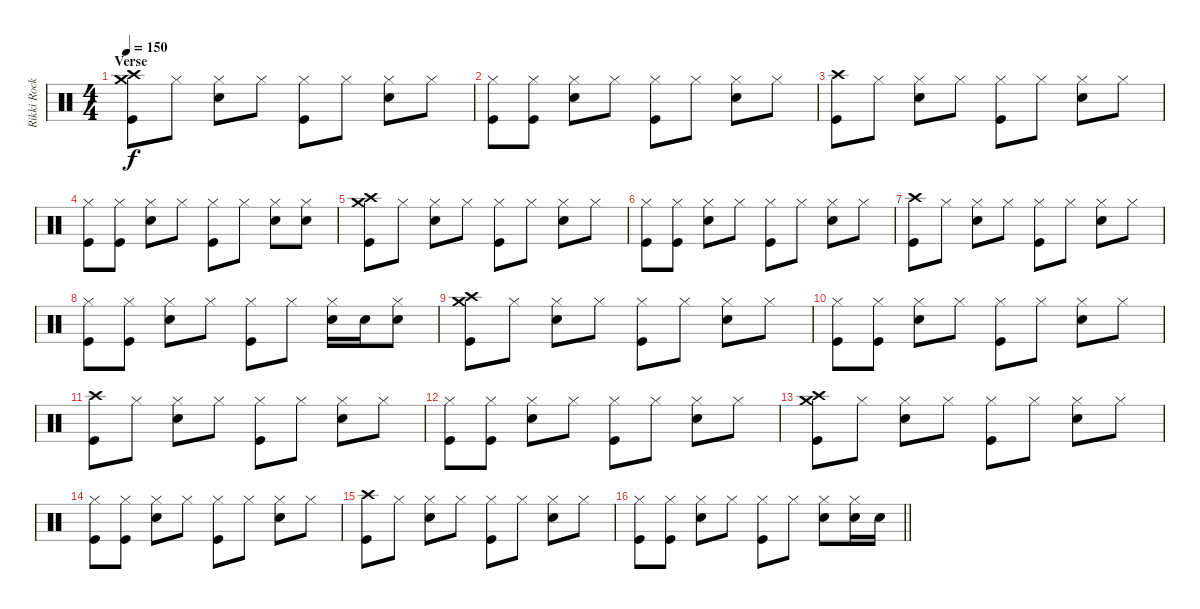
\track ("Rikki Rocket" "Rikki Rock") {instrument percussion}
\staff {score}
\articulation defaults
\ts (4 4)
\section ("" "Verse")
\tempo 150
\clef neutral
\ks c
("Crash medium (hit)" "Crash high (hit)" "Kick (hit)").8{dy f} "Hi-Hat (closed)".8 ("Hi-Hat (closed)" "Electric Snare (hit)").8 "Hi-Hat (closed)".8 ("Hi-Hat (closed)" "Kick (hit)").8 "Hi-Hat (closed)".8 ("Hi-Hat (closed)" "Electric Snare (hit)").8 "Hi-Hat (closed)".8 |
("Hi-Hat (closed)" "Kick (hit)").8 ("Hi-Hat (closed)" "Kick (hit)").8 ("Hi-Hat (closed)" "Electric Snare (hit)").8 "Hi-Hat (closed)".8 ("Hi-Hat (closed)" "Kick (hit)").8 "Hi-Hat (closed)".8 ("Hi-Hat (closed)" "Electric Snare (hit)").8 "Hi-Hat (closed)".8 |
("Crash high (hit)" "Kick (hit)").8 "Hi-Hat (closed)".8 ("Hi-Hat (closed)" "Electric Snare (hit)").8 "Hi-Hat (closed)".8 ("Hi-Hat (closed)" "Kick (hit)").8 "Hi-Hat (closed)".8 ("Hi-Hat (closed)" "Electric Snare (hit)").8 "Hi-Hat (closed)".8 |
("Hi-Hat (closed)" "Kick (hit)").8 ("Hi-Hat (closed)" "Kick (hit)").8 ("Hi-Hat (closed)" "Electric Snare (hit)").8 "Hi-Hat (closed)".8 ("Hi-Hat (closed)" "Kick (hit)").8 "Hi-Hat (closed)".8 ("Hi-Hat (closed)" "Electric Snare (hit)").8 ("Hi-Hat (closed)" "Electric Snare (hit)").8 |
("Crash medium (hit)" "Crash high (hit)" "Kick (hit)").8 "Hi-Hat (closed)".8 ("Hi-Hat (closed)" "Electric Snare (hit)").8 "Hi-Hat (closed)".8 ("Hi-Hat (closed)" "Kick (hit)").8 "Hi-Hat (closed)".8 ("Hi-Hat (closed)" "Electric Snare (hit)").8 "Hi-Hat (closed)".8 |
("Hi-Hat (closed)" "Kick (hit)").8 ("Hi-Hat (closed)" "Kick (hit)").8 ("Hi-Hat (closed)" "Electric Snare (hit)").8 "Hi-Hat (closed)".8 ("Hi-Hat (closed)" "Kick (hit)").8 "Hi-Hat (closed)".8 ("Hi-Hat (closed)" "Electric Snare (hit)").8 "Hi-Hat (closed)".8 |
("Crash high (hit)" "Kick (hit)").8 "Hi-Hat (closed)".8 ("Hi-Hat (closed)" "Electric Snare (hit)").8 "Hi-Hat (closed)".8 ("Hi-Hat (closed)" "Kick (hit)").8 "Hi-Hat (closed)".8 ("Hi-Hat (closed)" "Electric Snare (hit)").8 "Hi-Hat (closed)".8 |
("Hi-Hat (closed)" "Kick (hit)").8 ("Hi-Hat (closed)" "Kick (hit)").8 ("Hi-Hat (closed)" "Electric Snare (hit)").8 "Hi-Hat (closed)".8 ("Hi-Hat (closed)" "Kick (hit)").8 "Hi-Hat (closed)".8 ("Hi-Hat (closed)" "Electric Snare (hit)").16 "Electric Snare (hit)".16 ("Hi-Hat (closed)" "Electric Snare (hit)").8 |
("Crash medium (hit)" "Crash high (hit)" "Kick (hit)").8 "Hi-Hat (closed)".8 ("Hi-Hat (closed)" "Electric Snare (hit)").8 "Hi-Hat (closed)".8 ("Hi-Hat (closed)" "Kick (hit)").8 "Hi-Hat (closed)".8 ("Hi-Hat (closed)" "Electric Snare (hit)").8 "Hi-Hat (closed)".8 |
("Hi-Hat (closed)" "Kick (hit)").8 ("Hi-Hat (closed)" "Kick (hit)").8 ("Hi-Hat (closed)" "Electric Snare (hit)").8 "Hi-Hat (closed)".8 ("Hi-Hat (closed)" "Kick (hit)").8 "Hi-Hat (closed)".8 ("Hi-Hat (closed)" "Electric Snare (hit)").8 "Hi-Hat (closed)".8 |
("Crash high (hit)" "Kick (hit)").8 "Hi-Hat (closed)".8 ("Hi-Hat (closed)" "Electric Snare (hit)").8 "Hi-Hat (closed)".8 ("Hi-Hat (closed)" "Kick (hit)").8 "Hi-Hat (closed)".8 ("Hi-Hat (closed)" "Electric Snare (hit)").8 "Hi-Hat (closed)".8 |
("Hi-Hat (closed)" "Kick (hit)").8 ("Hi-Hat (closed)" "Kick (hit)").8 ("Hi-Hat (closed)" "Electric Snare (hit)").8 "Hi-Hat (closed)".8 ("Hi-Hat (closed)" "Kick (hit)").8 "Hi-Hat (closed)".8 ("Hi-Hat (closed)" "Electric Snare (hit)").8 "Hi-Hat (closed)".8 |
("Crash medium (hit)" "Crash high (hit)" "Kick (hit)").8 "Hi-Hat (closed)".8 ("Hi-Hat (closed)" "Electric Snare (hit)").8 "Hi-Hat (closed)".8 ("Hi-Hat (closed)" "Kick (hit)").8 "Hi-Hat (closed)".8 ("Hi-Hat (closed)" "Electric Snare (hit)").8 "Hi-Hat (closed)".8 |
("Hi-Hat (closed)" "Kick (hit)").8 ("Hi-Hat (closed)" "Kick (hit)").8 ("Hi-Hat (closed)" "Electric Snare (hit)").8 "Hi-Hat (closed)".8 ("Hi-Hat (closed)" "Kick (hit)").8 "Hi-Hat (closed)".8 ("Hi-Hat (closed)" "Electric Snare (hit)").8 "Hi-Hat (closed)".8 |
("Crash high (hit)" "Kick (hit)").8 "Hi-Hat (closed)".8 ("Hi-Hat (closed)" "Electric Snare (hit)").8 "Hi-Hat (closed)".8 ("Hi-Hat (closed)" "Kick (hit)").8 "Hi-Hat (closed)".8 ("Hi-Hat (closed)" "Electric Snare (hit)").8 "Hi-Hat (closed)".8 |
\barLineRight lightlight
("Hi-Hat (closed)" "Kick (hit)").8 ("Hi-Hat (closed)" "Kick (hit)").8 ("Hi-Hat (closed)" "Electric Snare (hit)").8 "Hi-Hat (closed)".8 ("Hi-Hat (closed)" "Kick (hit)").8 "Hi-Hat (closed)".8 ("Hi-Hat (closed)" "Electric Snare (hit)").8 ("Hi-Hat (closed)" "Electric Snare (hit)").16 "Electric Snare (hit)".16
